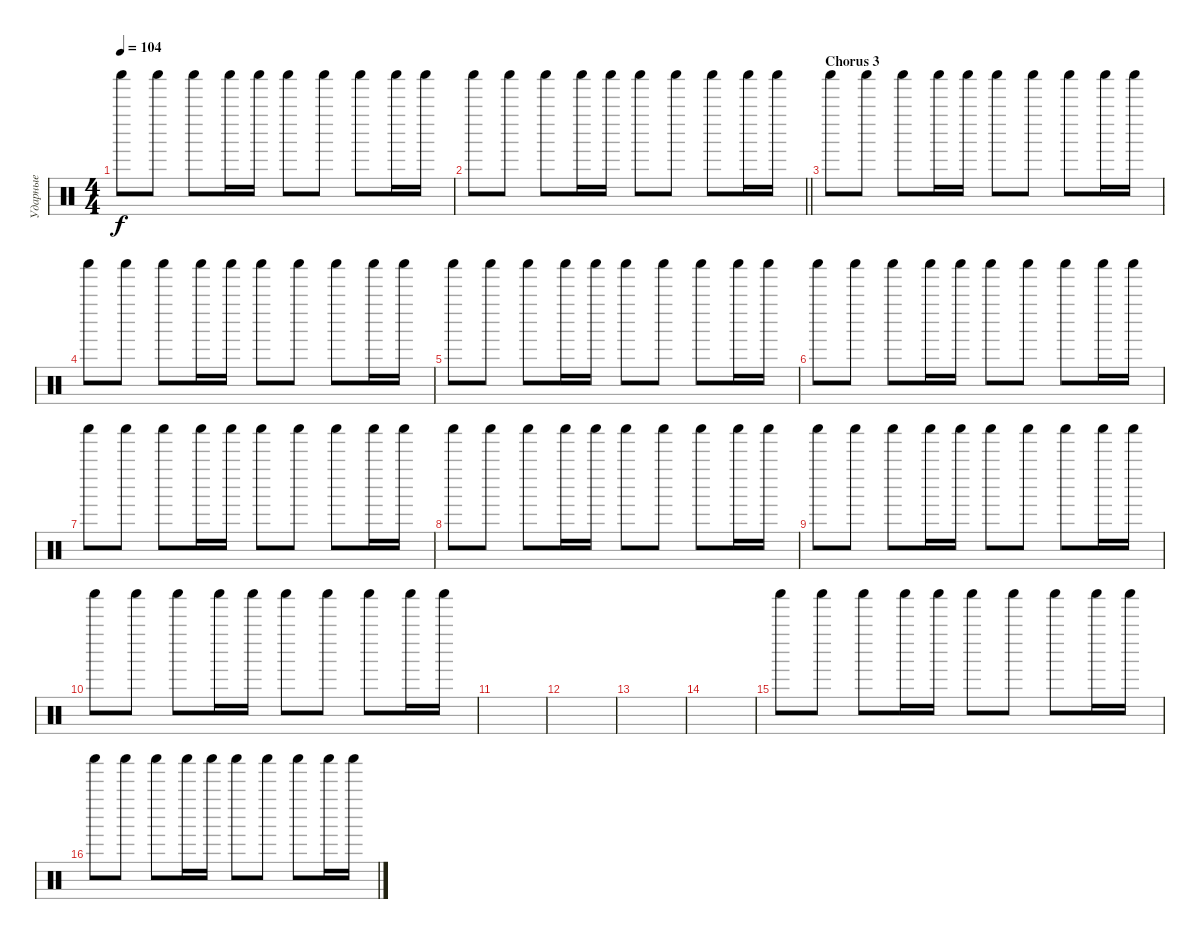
\track ("Ударные" "Ударные") {instrument percussion}
\staff {score}
\articulation defaults
\ts (4 4)
\tempo 104
\clef neutral
\ks c "Shaker (hit)".8{dy f} "Shaker (hit)".8 "Shaker (hit)".8 "Shaker (hit)".16 "Shaker (hit)".16 "Shaker (hit)".8 "Shaker (hit)".8 "Shaker (hit)".8 "Shaker (hit)".16 "Shaker (hit)".16
|
\barLineRight lightlight "Shaker (hit)".8 "Shaker (hit)".8 "Shaker (hit)".8 "Shaker (hit)".16 "Shaker (hit)".16 "Shaker (hit)".8 "Shaker (hit)".8 "Shaker (hit)".8 "Shaker (hit)".16 "Shaker (hit)".16
|
\section ("" "Chorus 3")
"Shaker (hit)".8 "Shaker (hit)".8 "Shaker (hit)".8 "Shaker (hit)".16 "Shaker (hit)".16 "Shaker (hit)".8 "Shaker (hit)".8 "Shaker (hit)".8 "Shaker (hit)".16 "Shaker (hit)".16 |
"Shaker (hit)".8 "Shaker (hit)".8 "Shaker (hit)".8 "Shaker (hit)".16 "Shaker (hit)".16 "Shaker (hit)".8 "Shaker (hit)".8 "Shaker (hit)".8 "Shaker (hit)".16 "Shaker (hit)".16 |
"Shaker (hit)".8 "Shaker (hit)".8 "Shaker (hit)".8 "Shaker (hit)".16 "Shaker (hit)".16 "Shaker (hit)".8 "Shaker (hit)".8 "Shaker (hit)".8 "Shaker (hit)".16 "Shaker (hit)".16 |
"Shaker (hit)".8 "Shaker (hit)".8 "Shaker (hit)".8 "Shaker (hit)".16 "Shaker (hit)".16 "Shaker (hit)".8 "Shaker (hit)".8 "Shaker (hit)".8 "Shaker (hit)".16 "Shaker (hit)".16 |
"Shaker (hit)".8 "Shaker (hit)".8 "Shaker (hit)".8 "Shaker (hit)".16 "Shaker (hit)".16 "Shaker (hit)".8 "Shaker (hit)".8 "Shaker (hit)".8 "Shaker (hit)".16 "Shaker (hit)".16 |
"Shaker (hit)".8 "Shaker (hit)".8 "Shaker (hit)".8 "Shaker (hit)".16 "Shaker (hit)".16 "Shaker (hit)".8 "Shaker (hit)".8 "Shaker (hit)".8 "Shaker (hit)".16 "Shaker (hit)".16 |
"Shaker (hit)".8 "Shaker (hit)".8 "Shaker (hit)".8 "Shaker (hit)".16 "Shaker (hit)".16 "Shaker (hit)".8 "Shaker (hit)".8 "Shaker (hit)".8 "Shaker (hit)".16 "Shaker (hit)".16 |
"Shaker (hit)".8 "Shaker (hit)".8 "Shaker (hit)".8 "Shaker (hit)".16 "Shaker (hit)".16 "Shaker (hit)".8 "Shaker (hit)".8 "Shaker (hit)".8 "Shaker (hit)".16 "Shaker (hit)".16 |
|
|
|
|
"Shaker (hit)".8 "Shaker (hit)".8 "Shaker (hit)".8 "Shaker (hit)".16 "Shaker (hit)".16 "Shaker (hit)".8 "Shaker (hit)".8 "Shaker (hit)".8 "Shaker (hit)".16 "Shaker (hit)".16 |
"Shaker (hit)".8 "Shaker (hit)".8 "Shaker (hit)".8 "Shaker (hit)".16 "Shaker (hit)".16 "Shaker (hit)".8 "Shaker (hit)".8 "Shaker (hit)".8 "Shaker (hit)".16 "Shaker (hit)".16
